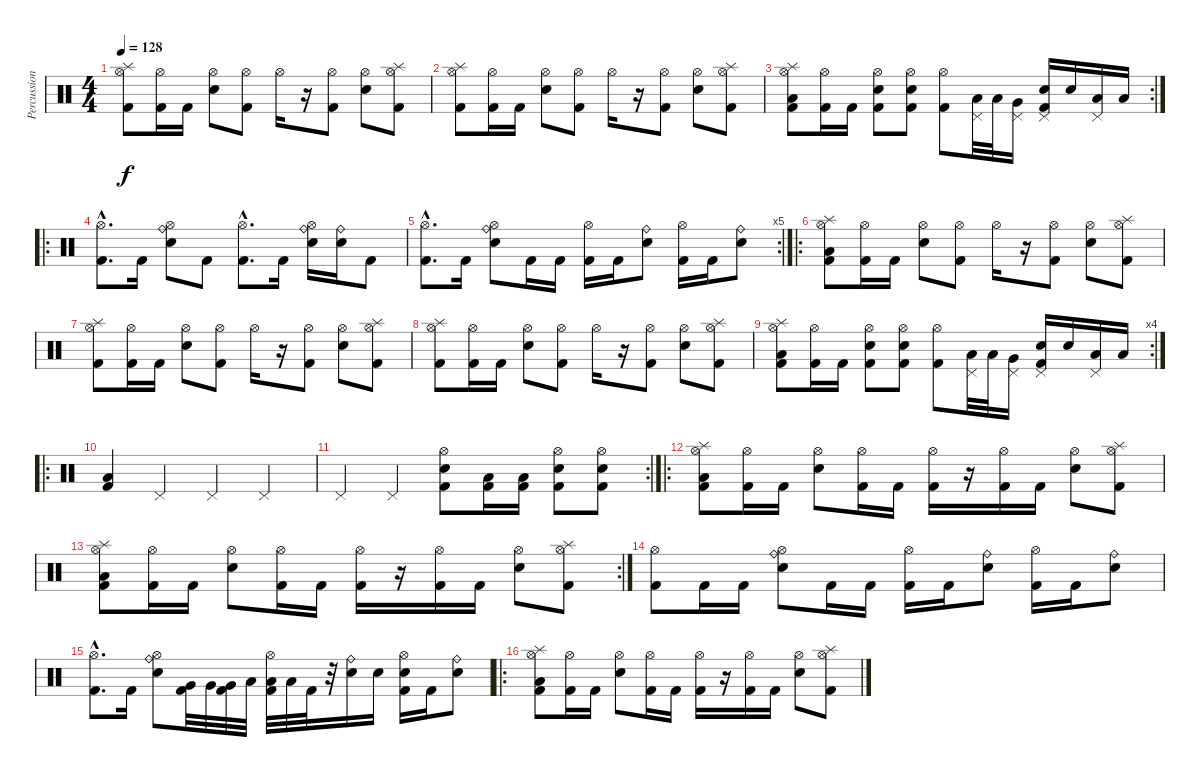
\track ("Percussion" "Percussion") {instrument percussion}
\staff {score}
\articulation defaults
\ts (4 4)
\tempo 128
\clef neutral
\ks c
("Splash (hit)" "Hi-Hat (open)" "Kick (hit) 2").8{dy f} ("Hi-Hat (open)" "Kick (hit) 2").16 "Kick (hit) 2".16 ("Hi-Hat (open)" "Electric Snare (hit)").8 ("Hi-Hat (open)" "Kick (hit) 2").8 "Hi-Hat (open)".16 r.16 ("Hi-Hat (open)" "Kick (hit) 2").8 ("Hi-Hat (open)" "Electric Snare (hit)").8 ("Splash (hit)" "Hi-Hat (open)" "Kick (hit) 2").8 |
("Splash (hit)" "Hi-Hat (open)" "Kick (hit) 2").8 ("Hi-Hat (open)" "Kick (hit) 2").16 "Kick (hit) 2".16 ("Hi-Hat (open)" "Electric Snare (hit)").8 ("Hi-Hat (open)" "Kick (hit) 2").8 "Hi-Hat (open)".16 r.16 ("Hi-Hat (open)" "Kick (hit) 2").8 ("Hi-Hat (open)" "Electric Snare (hit)").8 ("Splash (hit)" "Hi-Hat (open)" "Kick (hit) 2").8 |
\rc 2
("Splash (hit)" "Hi-Hat (open)" "Low Floor Tom (hit)" "Kick (hit) 2").8 ("Hi-Hat (open)" "Kick (hit) 2").16 "Kick (hit) 2".16 ("Hi-Hat (open)" "Electric Snare (hit)" "Kick (hit) 2").8 ("Hi-Hat (open)" "Electric Snare (hit)" "Kick (hit) 2").8 ("Hi-Hat (open)" "Kick (hit) 2").8 ("Pedal Hi-Hat (hit)" "Low Tom (hit)").32 "Low Tom (hit)".32 ("Pedal Hi-Hat (hit)" "Very Low Tom (hit)").16 ("Pedal Hi-Hat (hit)" "Electric Snare (hit)" "Kick (hit) 2").16 "Electric Snare (hit)".16 ("Pedal Hi-Hat (hit)" "Low Floor Tom (hit)").16 "Low Floor Tom (hit)".16 |
\ro
("Hi-Hat (open)"{hac} "Kick (hit) 2"{hac}).8{d} "Kick (hit) 2".16 ("Ride (bell)" "Hi-Hat (open)" "Electric Snare (hit)").8 "Kick (hit) 2".8 ("Hi-Hat (open)"{hac} "Kick (hit) 2"{hac}).8{d} "Kick (hit) 2".16 ("Ride (bell)" "Hi-Hat (open)" "Electric Snare (hit)").16 ("Ride (bell)" "Electric Snare (hit)").16 "Kick (hit) 2".8 |
\rc 5
("Hi-Hat (open)"{hac} "Kick (hit) 2"{hac}).8{d} "Kick (hit) 2".16 ("Ride (bell)" "Hi-Hat (open)" "Electric Snare (hit)").8 "Kick (hit) 2".16 "Kick (hit) 2".16 ("Hi-Hat (open)" "Kick (hit) 2").16 "Kick (hit) 2".16 ("Ride (bell)" "Electric Snare (hit)").8 ("Hi-Hat (open)" "Kick (hit) 2").16 "Kick (hit) 2".16 ("Ride (bell)" "Electric Snare (hit)").8 |
\ro
("Splash (hit)" "Hi-Hat (open)" "Low Floor Tom (hit)" "Kick (hit) 2").8 ("Hi-Hat (open)" "Kick (hit) 2").16 "Kick (hit) 2".16 ("Hi-Hat (open)" "Electric Snare (hit)").8 ("Hi-Hat (open)" "Kick (hit) 2").8 "Hi-Hat (open)".16 r.16 ("Hi-Hat (open)" "Kick (hit) 2").8 ("Hi-Hat (open)" "Electric Snare (hit)").8 ("Splash (hit)" "Hi-Hat (open)" "Kick (hit) 2").8 |
("Splash (hit)" "Hi-Hat (open)" "Kick (hit) 2").8 ("Hi-Hat (open)" "Kick (hit) 2").16 "Kick (hit) 2".16 ("Hi-Hat (open)" "Electric Snare (hit)").8 ("Hi-Hat (open)" "Kick (hit) 2").8 "Hi-Hat (open)".16 r.16 ("Hi-Hat (open)" "Kick (hit) 2").8 ("Hi-Hat (open)" "Electric Snare (hit)").8 ("Splash (hit)" "Hi-Hat (open)" "Kick (hit) 2").8 |
("Splash (hit)" "Hi-Hat (open)" "Kick (hit) 2").8 ("Hi-Hat (open)" "Kick (hit) 2").16 "Kick (hit) 2".16 ("Hi-Hat (open)" "Electric Snare (hit)").8 ("Hi-Hat (open)" "Kick (hit) 2").8 "Hi-Hat (open)".16 r.16 ("Hi-Hat (open)" "Kick (hit) 2").8 ("Hi-Hat (open)" "Electric Snare (hit)").8 ("Splash (hit)" "Hi-Hat (open)" "Kick (hit) 2").8 |
\rc 4
("Splash (hit)" "Hi-Hat (open)" "Low Floor Tom (hit)" "Kick (hit) 2").8 ("Hi-Hat (open)" "Kick (hit) 2").16 "Kick (hit) 2".16 ("Hi-Hat (open)" "Electric Snare (hit)" "Kick (hit) 2").8 ("Hi-Hat (open)" "Electric Snare (hit)" "Kick (hit) 2").8 ("Hi-Hat (open)" "Kick (hit) 2").8 ("Pedal Hi-Hat (hit)" "Low Tom (hit)").32 "Low Tom (hit)".32 ("Pedal Hi-Hat (hit)" "Very Low Tom (hit)").16 ("Pedal Hi-Hat (hit)" "Electric Snare (hit)" "Kick (hit) 2").16 "Electric Snare (hit)".16 ("Pedal Hi-Hat (hit)" "Low Floor Tom (hit)").16 "Low Floor Tom (hit)".16 |
\ro
("Low Floor Tom (hit)" "Kick (hit) 2").4 "Pedal Hi-Hat (hit)".4 "Pedal Hi-Hat (hit)".4 "Pedal Hi-Hat (hit)".4 |
\rc 2 "Pedal Hi-Hat (hit)".4 "Pedal Hi-Hat (hit)".4
("Hi-Hat (open)" "Electric Snare (hit)" "Kick (hit) 2").8 ("Kick (hit) 2" "Low Floor Tom (hit)").16 ("Kick (hit) 2" "Low Floor Tom (hit)").16 ("Hi-Hat (open)" "Electric Snare (hit)" "Kick (hit) 2").8 ("Hi-Hat (open)" "Electric Snare (hit)" "Kick (hit) 2").8 |
\ro
("Splash (hit)" "Hi-Hat (open)" "Low Floor Tom (hit)" "Kick (hit) 2").8 ("Hi-Hat (open)" "Kick (hit) 2").16 "Kick (hit) 2".16 ("Hi-Hat (open)" "Electric Snare (hit)").8 ("Hi-Hat (open)" "Kick (hit) 2").16 "Kick (hit) 2".16 ("Hi-Hat (open)" "Kick (hit) 2").16 r.16 ("Hi-Hat (open)" "Kick (hit) 2").16 "Kick (hit) 2".16 ("Hi-Hat (open)" "Electric Snare (hit)").8 ("Splash (hit)" "Hi-Hat (open)" "Kick (hit) 2").8 |
\rc 2
("Splash (hit)" "Hi-Hat (open)" "Low Floor Tom (hit)" "Kick (hit) 2").8 ("Hi-Hat (open)" "Kick (hit) 2").16 "Kick (hit) 2".16 ("Hi-Hat (open)" "Electric Snare (hit)").8 ("Hi-Hat (open)" "Kick (hit) 2").16 "Kick (hit) 2".16 ("Hi-Hat (open)" "Kick (hit) 2").16 r.16 ("Hi-Hat (open)" "Kick (hit) 2").16 "Kick (hit) 2".16 ("Hi-Hat (open)" "Electric Snare (hit)").8 ("Splash (hit)" "Hi-Hat (open)" "Kick (hit) 2").8 |
("Hi-Hat (open)" "Kick (hit) 2").8 "Kick (hit) 2".16 "Kick (hit) 2".16 ("Ride (bell)" "Hi-Hat (open)" "Electric Snare (hit)").8 "Kick (hit) 2".16 "Kick (hit) 2".16 ("Hi-Hat (open)" "Kick (hit) 2").16 "Kick (hit) 2".16 ("Ride (bell)" "Electric Snare (hit)").8 ("Hi-Hat (open)" "Kick (hit) 2").16 "Kick (hit) 2".16 ("Ride (bell)" "Electric Snare (hit)").8 |
("Hi-Hat (open)"{hac} "Kick (hit) 2"{hac}).8{d} "Kick (hit) 2".16 ("Ride (bell)" "Hi-Hat (open)" "Electric Snare (hit)").8 ("Very Low Tom (hit)" "Kick (hit) 2").32 "Very Low Tom (hit)".32 ("Very Low Tom (hit)" "Kick (hit) 2").32 "Low Floor Tom (hit)".32 ("Hi-Hat (open)" "Low Tom (hit)" "Kick (hit) 2").32 "Low Tom (hit)".32 "Kick (hit) 2".32 r.32 ("Ride (bell)" "Electric Snare (hit)").16 "Electric Snare (hit)".16 ("Hi-Hat (open)" "Electric Snare (hit)" "Kick (hit) 2").16 "Kick (hit) 2".16 ("Ride (bell)" "Electric Snare (hit)").8 |
\ro
("Splash (hit)" "Hi-Hat (open)" "Low Floor Tom (hit)" "Kick (hit) 2").8 ("Hi-Hat (open)" "Kick (hit) 2").16 "Kick (hit) 2".16 ("Hi-Hat (open)" "Electric Snare (hit)").8 ("Hi-Hat (open)" "Kick (hit) 2").16 "Kick (hit) 2".16 ("Hi-Hat (open)" "Kick (hit) 2").16 r.16 ("Hi-Hat (open)" "Kick (hit) 2").16 "Kick (hit) 2".16 ("Hi-Hat (open)" "Electric Snare (hit)").8 ("Splash (hit)" "Hi-Hat (open)" "Kick (hit) 2").8
